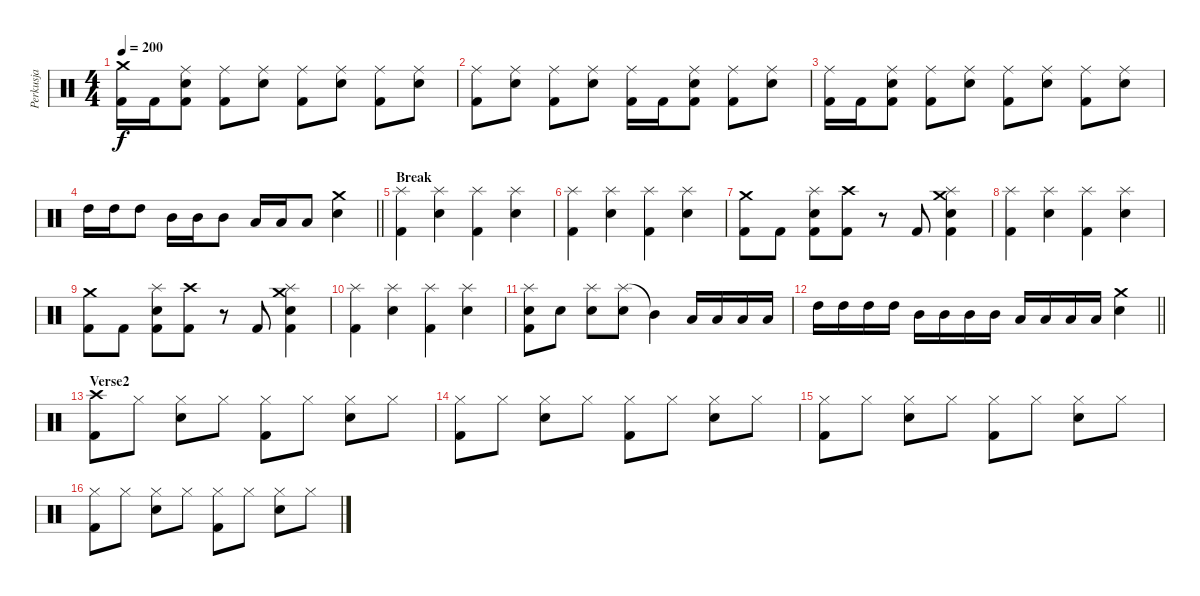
\track ("Perkusja" "Perkusja") {instrument percussion}
\staff {score}
\articulation defaults
\ts (4 4)
\tempo 200
\clef neutral
\ks c
("Crash medium (hit)" "Kick (hit) 2").16{dy f} "Kick (hit) 2".16 ("Ride (middle)" "Electric Snare (hit)" "Kick (hit) 2").8 ("Ride (middle)" "Kick (hit) 2").8 ("Ride (middle)" "Electric Snare (hit)").8 ("Ride (middle)" "Kick (hit) 2").8 ("Ride (middle)" "Electric Snare (hit)").8 ("Ride (middle)" "Kick (hit) 2").8 ("Ride (middle)" "Electric Snare (hit)").8 |
("Ride (middle)" "Kick (hit) 2").8 ("Ride (middle)" "Electric Snare (hit)").8 ("Ride (middle)" "Kick (hit) 2").8 ("Ride (middle)" "Electric Snare (hit)").8 ("Ride (middle)" "Kick (hit) 2").16 "Kick (hit) 2".16 ("Ride (middle)" "Electric Snare (hit)" "Kick (hit) 2").8 ("Ride (middle)" "Kick (hit) 2").8 ("Ride (middle)" "Electric Snare (hit)").8 |
("Ride (middle)" "Kick (hit) 2").16 "Kick (hit) 2".16 ("Ride (middle)" "Electric Snare (hit)" "Kick (hit) 2").8 ("Ride (middle)" "Kick (hit) 2").8 ("Ride (middle)" "Electric Snare (hit)").8 ("Ride (middle)" "Kick (hit) 2").8 ("Ride (middle)" "Electric Snare (hit)").8 ("Ride (middle)" "Kick (hit) 2").8 ("Ride (middle)" "Electric Snare (hit)").8 |
\barLineRight lightlight "High Tom (hit)".16 "High Tom (hit)".16 "High Tom (hit)".8 "Mid Tom (hit)".16 "Mid Tom (hit)".16 "Mid Tom (hit)".8 "Low Tom (hit)".16 "Low Tom (hit)".16 "Low Tom (hit)".8
("Crash medium (hit)" "Electric Snare (hit)").4 |
\section ("" "Break")
("Splash (hit)" "Kick (hit) 2").4 ("Splash (hit)" "Electric Snare (hit)").4 ("Splash (hit)" "Kick (hit) 2").4 ("Splash (hit)" "Electric Snare (hit)").4 |
("Splash (hit)" "Kick (hit) 2").4 ("Splash (hit)" "Electric Snare (hit)").4 ("Splash (hit)" "Kick (hit) 2").4 ("Splash (hit)" "Electric Snare (hit)").4 |
("Crash medium (hit)" "Kick (hit) 2").8 "Kick (hit) 2".8 ("Splash (hit)" "Electric Snare (hit)" "Kick (hit) 2").8 ("Crash high (hit)" "Kick (hit) 2").8 r.8 "Kick (hit) 2".8 ("Crash medium (hit)" "Splash (hit)" "Electric Snare (hit)" "Kick (hit) 2").4 |
("Splash (hit)" "Kick (hit) 2").4 ("Splash (hit)" "Electric Snare (hit)").4 ("Splash (hit)" "Kick (hit) 2").4 ("Splash (hit)" "Electric Snare (hit)").4 |
("Crash medium (hit)" "Kick (hit) 2").8 "Kick (hit) 2".8 ("Splash (hit)" "Electric Snare (hit)" "Kick (hit) 2").8 ("Crash high (hit)" "Kick (hit) 2").8 r.8 "Kick (hit) 2".8 ("Crash medium (hit)" "Splash (hit)" "Electric Snare (hit)" "Kick (hit) 2").4 |
("Splash (hit)" "Kick (hit) 2").4 ("Splash (hit)" "Electric Snare (hit)").4 ("Splash (hit)" "Kick (hit) 2").4 ("Splash (hit)" "Electric Snare (hit)").4 |
("Splash (hit)" "Electric Snare (hit)" "Kick (hit) 2").8 "Electric Snare (hit)".8 ("Splash (hit)" "Electric Snare (hit)").8 ("Splash (hit)" "Electric Snare (hit)").8 "Mid Tom (hit)"{t}.4 "Low Tom (hit)".16 "Low Tom (hit)".16 "Low Tom (hit)".16 "Low Tom (hit)".16 |
\barLineRight lightlight "High Tom (hit)".16 "High Tom (hit)".16 "High Tom (hit)".16 "High Tom (hit)".16 "Mid Tom (hit)".16 "Mid Tom (hit)".16 "Mid Tom (hit)".16 "Mid Tom (hit)".16 "Low Tom (hit)".16 "Low Tom (hit)".16 "Low Tom (hit)".16 "Low Tom (hit)".16
("Crash medium (hit)" "Electric Snare (hit)").4 |
\section ("" "Verse2")
("Crash high (hit)" "Kick (hit) 2").8 "Hi-Hat (closed)".8 ("Hi-Hat (closed)" "Electric Snare (hit)").8 "Hi-Hat (closed)".8 ("Hi-Hat (closed)" "Kick (hit) 2").8 "Hi-Hat (closed)".8 ("Hi-Hat (closed)" "Electric Snare (hit)").8 "Hi-Hat (closed)".8 |
("Hi-Hat (closed)" "Kick (hit) 2").8 "Hi-Hat (closed)".8 ("Hi-Hat (closed)" "Electric Snare (hit)").8 "Hi-Hat (closed)".8 ("Hi-Hat (closed)" "Kick (hit) 2").8 "Hi-Hat (closed)".8 ("Hi-Hat (closed)" "Electric Snare (hit)").8 "Hi-Hat (closed)".8 |
("Hi-Hat (closed)" "Kick (hit) 2").8 "Hi-Hat (closed)".8 ("Hi-Hat (closed)" "Electric Snare (hit)").8 "Hi-Hat (closed)".8 ("Hi-Hat (closed)" "Kick (hit) 2").8 "Hi-Hat (closed)".8 ("Hi-Hat (closed)" "Electric Snare (hit)").8 "Hi-Hat (closed)".8 |
("Hi-Hat (closed)" "Kick (hit) 2").8 "Hi-Hat (closed)".8 ("Hi-Hat (closed)" "Electric Snare (hit)").8 "Hi-Hat (closed)".8 ("Hi-Hat (closed)" "Kick (hit) 2").8 "Hi-Hat (closed)".8 ("Hi-Hat (closed)" "Electric Snare (hit)").8 "Hi-Hat (closed)".8
